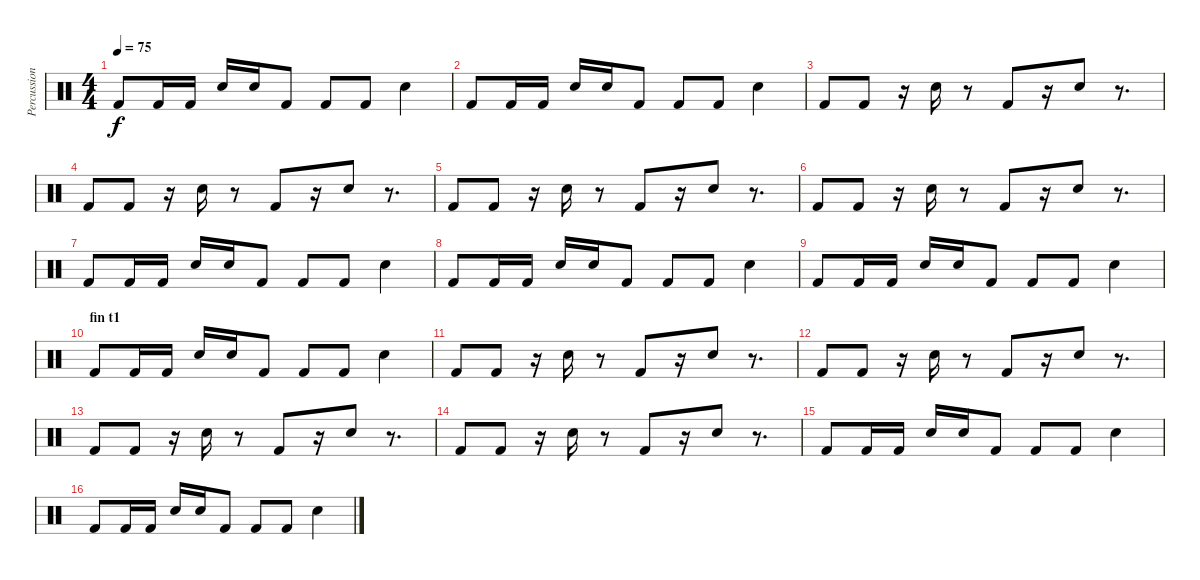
\track ("Percussions" "Percussion") {instrument percussion}
\staff {score}
\articulation defaults
\ts (4 4)
\tempo 75
\clef neutral
\ks c "Kick (hit) 2".8{dy f} "Kick (hit) 2".16 "Kick (hit) 2".16 "Electric Snare (hit)".16 "Electric Snare (hit)".16 "Kick (hit) 2".8 "Kick (hit) 2".8 "Kick (hit) 2".8 "Electric Snare (hit)".4
|
"Kick (hit) 2".8 "Kick (hit) 2".16 "Kick (hit) 2".16 "Electric Snare (hit)".16 "Electric Snare (hit)".16 "Kick (hit) 2".8 "Kick (hit) 2".8 "Kick (hit) 2".8 "Electric Snare (hit)".4 |
"Kick (hit) 2".8 "Kick (hit) 2".8 r.16 "Electric Snare (hit)".16 r.8 "Kick (hit) 2".8 r.16 "Electric Snare (hit)".8 r.8{d} |
"Kick (hit) 2".8 "Kick (hit) 2".8 r.16 "Electric Snare (hit)".16 r.8 "Kick (hit) 2".8 r.16 "Electric Snare (hit)".8 r.8{d} |
"Kick (hit) 2".8 "Kick (hit) 2".8 r.16 "Electric Snare (hit)".16 r.8 "Kick (hit) 2".8 r.16 "Electric Snare (hit)".8 r.8{d} |
"Kick (hit) 2".8 "Kick (hit) 2".8 r.16 "Electric Snare (hit)".16 r.8 "Kick (hit) 2".8 r.16 "Electric Snare (hit)".8 r.8{d} |
"Kick (hit) 2".8 "Kick (hit) 2".16 "Kick (hit) 2".16 "Electric Snare (hit)".16 "Electric Snare (hit)".16 "Kick (hit) 2".8 "Kick (hit) 2".8 "Kick (hit) 2".8 "Electric Snare (hit)".4 |
"Kick (hit) 2".8 "Kick (hit) 2".16 "Kick (hit) 2".16 "Electric Snare (hit)".16 "Electric Snare (hit)".16 "Kick (hit) 2".8 "Kick (hit) 2".8 "Kick (hit) 2".8 "Electric Snare (hit)".4 |
"Kick (hit) 2".8 "Kick (hit) 2".16 "Kick (hit) 2".16 "Electric Snare (hit)".16 "Electric Snare (hit)".16 "Kick (hit) 2".8 "Kick (hit) 2".8 "Kick (hit) 2".8 "Electric Snare (hit)".4 |
\section ("" "fin t1")
"Kick (hit) 2".8 "Kick (hit) 2".16 "Kick (hit) 2".16 "Electric Snare (hit)".16 "Electric Snare (hit)".16 "Kick (hit) 2".8 "Kick (hit) 2".8 "Kick (hit) 2".8 "Electric Snare (hit)".4 |
"Kick (hit) 2".8 "Kick (hit) 2".8 r.16 "Electric Snare (hit)".16 r.8 "Kick (hit) 2".8 r.16 "Electric Snare (hit)".8 r.8{d} |
"Kick (hit) 2".8 "Kick (hit) 2".8 r.16 "Electric Snare (hit)".16 r.8 "Kick (hit) 2".8 r.16 "Electric Snare (hit)".8 r.8{d} |
"Kick (hit) 2".8 "Kick (hit) 2".8 r.16 "Electric Snare (hit)".16 r.8 "Kick (hit) 2".8 r.16 "Electric Snare (hit)".8 r.8{d} |
"Kick (hit) 2".8 "Kick (hit) 2".8 r.16 "Electric Snare (hit)".16 r.8 "Kick (hit) 2".8 r.16 "Electric Snare (hit)".8 r.8{d} |
"Kick (hit) 2".8 "Kick (hit) 2".16 "Kick (hit) 2".16 "Electric Snare (hit)".16 "Electric Snare (hit)".16 "Kick (hit) 2".8 "Kick (hit) 2".8 "Kick (hit) 2".8 "Electric Snare (hit)".4 |
"Kick (hit) 2".8 "Kick (hit) 2".16 "Kick (hit) 2".16 "Electric Snare (hit)".16 "Electric Snare (hit)".16 "Kick (hit) 2".8 "Kick (hit) 2".8 "Kick (hit) 2".8 "Electric Snare (hit)".4
